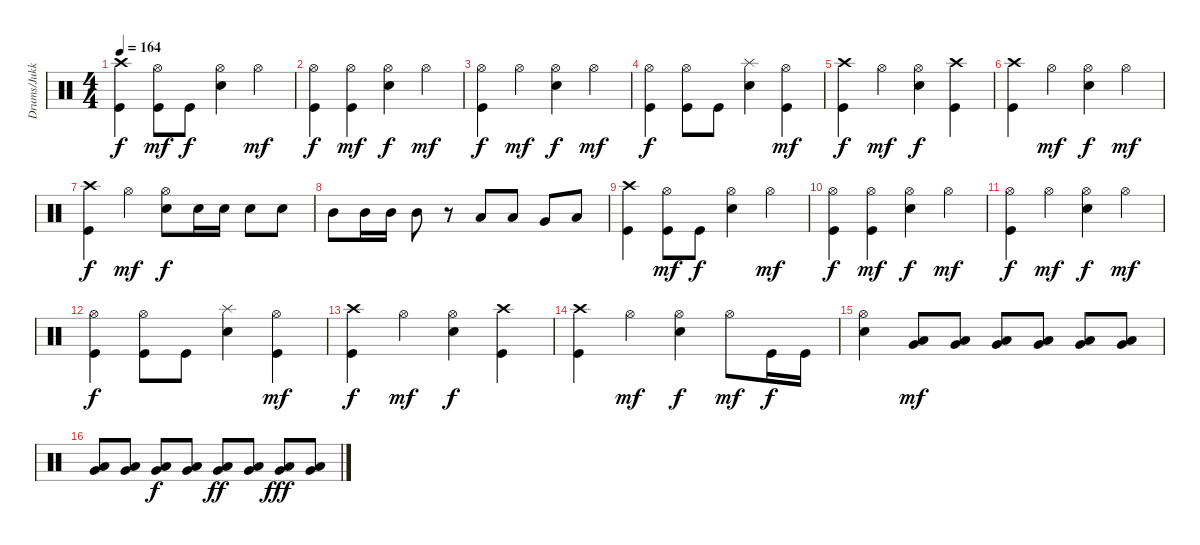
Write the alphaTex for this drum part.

\track ("Drums/Jukka" "Drums/Jukk") {instrument percussion}
\staff {score}
\articulation defaults
\ts (4 4)
\tempo 164
\clef neutral
\ks c
("Crash high (hit)" "Kick (hit)").4{dy f} ("Hi-Hat (open)" "Kick (hit)").8{dy mf} "Kick (hit)".8{dy f} ("Hi-Hat (open)" "Electric Snare (hit)").4 "Hi-Hat (open)".4{dy mf} |
("Hi-Hat (open)" "Kick (hit)").4{dy f} ("Hi-Hat (open)" "Kick (hit)").4{dy mf} ("Hi-Hat (open)" "Electric Snare (hit)").4{dy f} "Hi-Hat (open)".4{dy mf} |
("Hi-Hat (open)" "Kick (hit)").4{dy f} "Hi-Hat (open)".4{dy mf} ("Hi-Hat (open)" "Electric Snare (hit)").4{dy f} "Hi-Hat (open)".4{dy mf} |
("Hi-Hat (open)" "Kick (hit)").4{dy f} ("Hi-Hat (open)" "Kick (hit)").8 "Kick (hit)".8 ("Splash (hit)" "Electric Snare (hit)").4 ("Hi-Hat (open)" "Kick (hit)").4{dy mf} |
("Crash high (hit)" "Kick (hit)").4{dy f} "Hi-Hat (open)".4{dy mf} ("Hi-Hat (open)" "Electric Snare (hit)").4{dy f} ("Crash high (hit)" "Kick (hit)").4 |
("Crash high (hit)" "Kick (hit)").4 "Hi-Hat (open)".4{dy mf} ("Hi-Hat (open)" "Electric Snare (hit)").4{dy f} "Hi-Hat (open)".4{dy mf} |
("Crash high (hit)" "Kick (hit)").4{dy f} "Hi-Hat (open)".4{dy mf} ("Hi-Hat (open)" "Electric Snare (hit)").8{dy f} "Electric Snare (hit)".16 "Electric Snare (hit)".16 "Electric Snare (hit)".8 "Electric Snare (hit)".8 |
"Mid Tom (hit)".8 "Mid Tom (hit)".16 "Mid Tom (hit)".16 "Mid Tom (hit)".8 r.8 "Low Tom (hit)".8 "Low Tom (hit)".8 "Very Low Tom (hit)".8 "Low Floor Tom (hit)".8 |
("Crash high (hit)" "Kick (hit)").4 ("Hi-Hat (open)" "Kick (hit)").8{dy mf} "Kick (hit)".8{dy f} ("Hi-Hat (open)" "Electric Snare (hit)").4 "Hi-Hat (open)".4{dy mf} |
("Hi-Hat (open)" "Kick (hit)").4{dy f} ("Hi-Hat (open)" "Kick (hit)").4{dy mf} ("Hi-Hat (open)" "Electric Snare (hit)").4{dy f} "Hi-Hat (open)".4{dy mf} |
("Hi-Hat (open)" "Kick (hit)").4{dy f} "Hi-Hat (open)".4{dy mf} ("Hi-Hat (open)" "Electric Snare (hit)").4{dy f} "Hi-Hat (open)".4{dy mf} |
("Hi-Hat (open)" "Kick (hit)").4{dy f} ("Hi-Hat (open)" "Kick (hit)").8 "Kick (hit)".8 ("Splash (hit)" "Electric Snare (hit)").4 ("Hi-Hat (open)" "Kick (hit)").4{dy mf} |
("Crash high (hit)" "Kick (hit)").4{dy f} "Hi-Hat (open)".4{dy mf} ("Hi-Hat (open)" "Electric Snare (hit)").4{dy f} ("Crash high (hit)" "Kick (hit)").4 |
("Crash high (hit)" "Kick (hit)").4 "Hi-Hat (open)".4{dy mf} ("Hi-Hat (open)" "Electric Snare (hit)").4{dy f} "Hi-Hat (open)".8{dy mf} "Kick (hit)".16{dy f} "Kick (hit)".16 |
("Hi-Hat (open)" "Electric Snare (hit)").4 ("Very Low Tom (hit)" "Low Floor Tom (hit)").8{dy mf} ("Very Low Tom (hit)" "Low Floor Tom (hit)").8 ("Very Low Tom (hit)" "Low Floor Tom (hit)").8 ("Very Low Tom (hit)" "Low Floor Tom (hit)").8 ("Very Low Tom (hit)" "Low Floor Tom (hit)").8 ("Very Low Tom (hit)" "Low Floor Tom (hit)").8 |
("Very Low Tom (hit)" "Low Floor Tom (hit)").8 ("Very Low Tom (hit)" "Low Floor Tom (hit)").8 ("Very Low Tom (hit)" "Low Floor Tom (hit)").8{dy f} ("Very Low Tom (hit)" "Low Floor Tom (hit)").8 ("Very Low Tom (hit)" "Low Floor Tom (hit)").8{dy ff} ("Very Low Tom (hit)" "Low Floor Tom (hit)").8 ("Very Low Tom (hit)" "Low Floor Tom (hit)").8{dy fff} ("Very Low Tom (hit)" "Low Floor Tom (hit)").8
